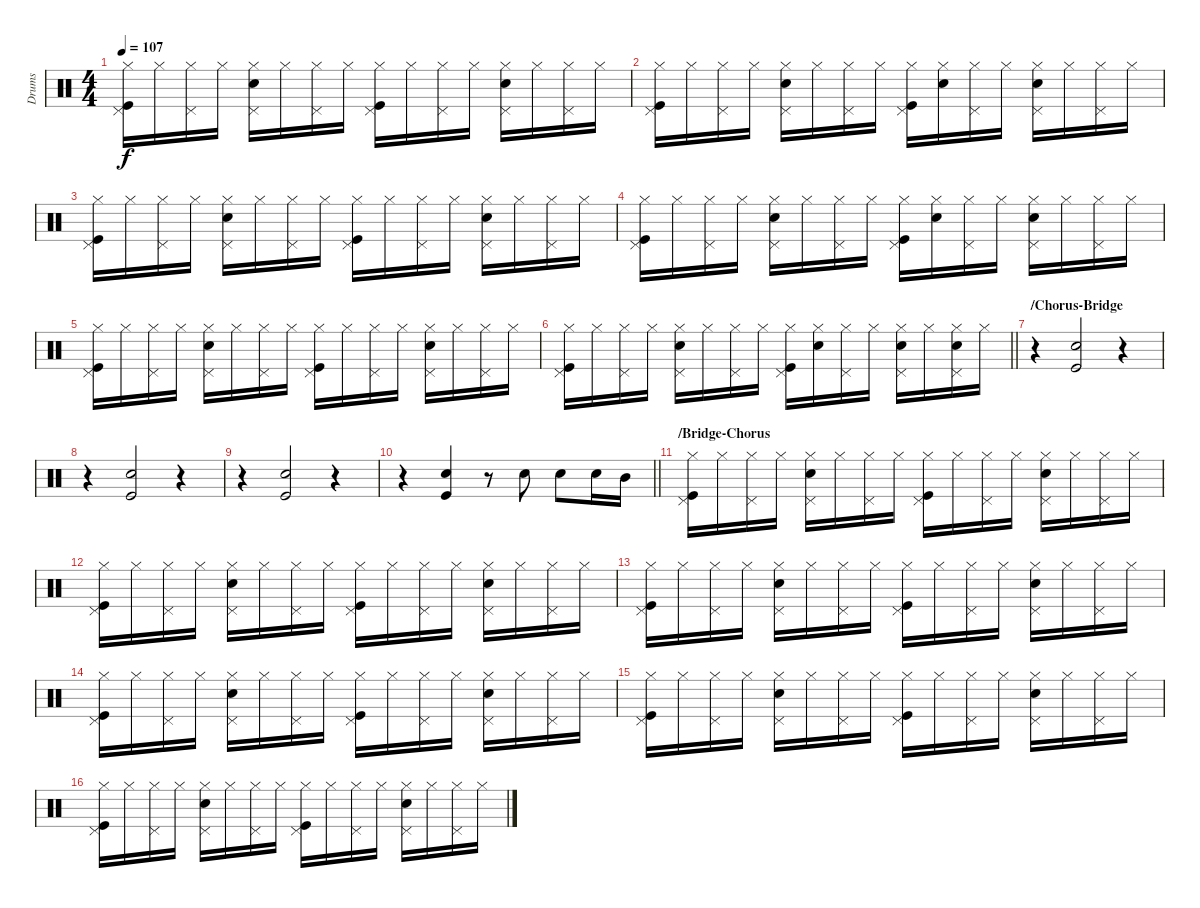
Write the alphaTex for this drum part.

\track ("Drums" "Drums") {instrument percussion}
\staff {score}
\articulation defaults
\ts (4 4)
\tempo 107
\clef neutral
\ks c
("Kick (hit)" "Pedal Hi-Hat (hit)" "Hi-Hat (closed)").16{dy f} "Hi-Hat (closed)".16 ("Pedal Hi-Hat (hit)" "Hi-Hat (closed)").16 "Hi-Hat (closed)".16 ("Snare (hit) 2" "Pedal Hi-Hat (hit)" "Hi-Hat (closed)").16 "Hi-Hat (closed)".16 ("Pedal Hi-Hat (hit)" "Hi-Hat (closed)").16 "Hi-Hat (closed)".16 ("Kick (hit)" "Pedal Hi-Hat (hit)" "Hi-Hat (closed)").16 "Hi-Hat (closed)".16 ("Pedal Hi-Hat (hit)" "Hi-Hat (closed)").16 "Hi-Hat (closed)".16 ("Snare (hit) 2" "Pedal Hi-Hat (hit)" "Hi-Hat (closed)").16 "Hi-Hat (closed)".16 ("Pedal Hi-Hat (hit)" "Hi-Hat (closed)").16 "Hi-Hat (closed)".16 |
("Kick (hit)" "Pedal Hi-Hat (hit)" "Hi-Hat (closed)").16 "Hi-Hat (closed)".16 ("Pedal Hi-Hat (hit)" "Hi-Hat (closed)").16 "Hi-Hat (closed)".16 ("Snare (hit) 2" "Pedal Hi-Hat (hit)" "Hi-Hat (closed)").16 "Hi-Hat (closed)".16 ("Pedal Hi-Hat (hit)" "Hi-Hat (closed)").16 "Hi-Hat (closed)".16 ("Kick (hit)" "Pedal Hi-Hat (hit)" "Hi-Hat (closed)").16 ("Snare (hit) 2" "Hi-Hat (closed)").16 ("Pedal Hi-Hat (hit)" "Hi-Hat (closed)").16 "Hi-Hat (closed)".16 ("Snare (hit) 2" "Pedal Hi-Hat (hit)" "Hi-Hat (closed)").16 "Hi-Hat (closed)".16 ("Pedal Hi-Hat (hit)" "Hi-Hat (closed)").16 "Hi-Hat (closed)".16 |
("Kick (hit)" "Pedal Hi-Hat (hit)" "Hi-Hat (closed)").16 "Hi-Hat (closed)".16 ("Pedal Hi-Hat (hit)" "Hi-Hat (closed)").16 "Hi-Hat (closed)".16 ("Snare (hit) 2" "Pedal Hi-Hat (hit)" "Hi-Hat (closed)").16 "Hi-Hat (closed)".16 ("Pedal Hi-Hat (hit)" "Hi-Hat (closed)").16 "Hi-Hat (closed)".16 ("Kick (hit)" "Pedal Hi-Hat (hit)" "Hi-Hat (closed)").16 "Hi-Hat (closed)".16 ("Pedal Hi-Hat (hit)" "Hi-Hat (closed)").16 "Hi-Hat (closed)".16 ("Snare (hit) 2" "Pedal Hi-Hat (hit)" "Hi-Hat (closed)").16 "Hi-Hat (closed)".16 ("Pedal Hi-Hat (hit)" "Hi-Hat (closed)").16 "Hi-Hat (closed)".16 |
("Kick (hit)" "Pedal Hi-Hat (hit)" "Hi-Hat (closed)").16 "Hi-Hat (closed)".16 ("Pedal Hi-Hat (hit)" "Hi-Hat (closed)").16 "Hi-Hat (closed)".16 ("Snare (hit) 2" "Pedal Hi-Hat (hit)" "Hi-Hat (closed)").16 "Hi-Hat (closed)".16 ("Pedal Hi-Hat (hit)" "Hi-Hat (closed)").16 "Hi-Hat (closed)".16 ("Kick (hit)" "Pedal Hi-Hat (hit)" "Hi-Hat (closed)").16 ("Snare (hit) 2" "Hi-Hat (closed)").16 ("Pedal Hi-Hat (hit)" "Hi-Hat (closed)").16 "Hi-Hat (closed)".16 ("Snare (hit) 2" "Pedal Hi-Hat (hit)" "Hi-Hat (closed)").16 "Hi-Hat (closed)".16 ("Pedal Hi-Hat (hit)" "Hi-Hat (closed)").16 "Hi-Hat (closed)".16 |
("Kick (hit)" "Pedal Hi-Hat (hit)" "Hi-Hat (closed)").16 "Hi-Hat (closed)".16 ("Pedal Hi-Hat (hit)" "Hi-Hat (closed)").16 "Hi-Hat (closed)".16 ("Snare (hit) 2" "Pedal Hi-Hat (hit)" "Hi-Hat (closed)").16 "Hi-Hat (closed)".16 ("Pedal Hi-Hat (hit)" "Hi-Hat (closed)").16 "Hi-Hat (closed)".16 ("Kick (hit)" "Pedal Hi-Hat (hit)" "Hi-Hat (closed)").16 "Hi-Hat (closed)".16 ("Pedal Hi-Hat (hit)" "Hi-Hat (closed)").16 "Hi-Hat (closed)".16 ("Snare (hit) 2" "Pedal Hi-Hat (hit)" "Hi-Hat (closed)").16 "Hi-Hat (closed)".16 ("Pedal Hi-Hat (hit)" "Hi-Hat (closed)").16 "Hi-Hat (closed)".16 |
\barLineRight lightlight
("Kick (hit)" "Pedal Hi-Hat (hit)" "Hi-Hat (closed)").16 "Hi-Hat (closed)".16 ("Pedal Hi-Hat (hit)" "Hi-Hat (closed)").16 "Hi-Hat (closed)".16 ("Snare (hit) 2" "Pedal Hi-Hat (hit)" "Hi-Hat (closed)").16 "Hi-Hat (closed)".16 ("Pedal Hi-Hat (hit)" "Hi-Hat (closed)").16 "Hi-Hat (closed)".16 ("Kick (hit)" "Pedal Hi-Hat (hit)" "Hi-Hat (closed)").16 ("Snare (hit) 2" "Hi-Hat (closed)").16 ("Pedal Hi-Hat (hit)" "Hi-Hat (closed)").16 "Hi-Hat (closed)".16 ("Snare (hit) 2" "Pedal Hi-Hat (hit)" "Hi-Hat (closed)").16 "Hi-Hat (closed)".16 ("Snare (hit) 2" "Pedal Hi-Hat (hit)" "Hi-Hat (closed)").16 "Hi-Hat (closed)".16 |
\section ("" "/Chorus-Bridge")
r.4 ("Kick (hit)" "Snare (hit) 2").2 r.4 |
r.4 ("Kick (hit)" "Snare (hit) 2").2 r.4 |
r.4 ("Kick (hit)" "Snare (hit) 2").2 r.4 |
\barLineRight lightlight
r.4 ("Kick (hit)" "Snare (hit) 2").4 r.8 "Snare (hit) 2".8 "Snare (hit) 2".8 "Snare (hit) 2".16 "Mid Tom (hit)".16 |
\section ("" "/Bridge-Chorus")
("Kick (hit)" "Pedal Hi-Hat (hit)" "Hi-Hat (closed)").16 "Hi-Hat (closed)".16 ("Pedal Hi-Hat (hit)" "Hi-Hat (closed)").16 "Hi-Hat (closed)".16 ("Snare (hit) 2" "Pedal Hi-Hat (hit)" "Hi-Hat (closed)").16 "Hi-Hat (closed)".16 ("Pedal Hi-Hat (hit)" "Hi-Hat (closed)").16 "Hi-Hat (closed)".16 ("Kick (hit)" "Pedal Hi-Hat (hit)" "Hi-Hat (closed)").16 "Hi-Hat (closed)".16 ("Pedal Hi-Hat (hit)" "Hi-Hat (closed)").16 "Hi-Hat (closed)".16 ("Snare (hit) 2" "Pedal Hi-Hat (hit)" "Hi-Hat (closed)").16 "Hi-Hat (closed)".16 ("Pedal Hi-Hat (hit)" "Hi-Hat (closed)").16 "Hi-Hat (closed)".16 |
("Kick (hit)" "Pedal Hi-Hat (hit)" "Hi-Hat (closed)").16 "Hi-Hat (closed)".16 ("Pedal Hi-Hat (hit)" "Hi-Hat (closed)").16 "Hi-Hat (closed)".16 ("Snare (hit) 2" "Pedal Hi-Hat (hit)" "Hi-Hat (closed)").16 "Hi-Hat (closed)".16 ("Pedal Hi-Hat (hit)" "Hi-Hat (closed)").16 "Hi-Hat (closed)".16 ("Kick (hit)" "Pedal Hi-Hat (hit)" "Hi-Hat (closed)").16 "Hi-Hat (closed)".16 ("Pedal Hi-Hat (hit)" "Hi-Hat (closed)").16 "Hi-Hat (closed)".16 ("Snare (hit) 2" "Pedal Hi-Hat (hit)" "Hi-Hat (closed)").16 "Hi-Hat (closed)".16 ("Pedal Hi-Hat (hit)" "Hi-Hat (closed)").16 "Hi-Hat (closed)".16 |
("Kick (hit)" "Pedal Hi-Hat (hit)" "Hi-Hat (closed)").16 "Hi-Hat (closed)".16 ("Pedal Hi-Hat (hit)" "Hi-Hat (closed)").16 "Hi-Hat (closed)".16 ("Snare (hit) 2" "Pedal Hi-Hat (hit)" "Hi-Hat (closed)").16 "Hi-Hat (closed)".16 ("Pedal Hi-Hat (hit)" "Hi-Hat (closed)").16 "Hi-Hat (closed)".16 ("Kick (hit)" "Pedal Hi-Hat (hit)" "Hi-Hat (closed)").16 "Hi-Hat (closed)".16 ("Pedal Hi-Hat (hit)" "Hi-Hat (closed)").16 "Hi-Hat (closed)".16 ("Snare (hit) 2" "Pedal Hi-Hat (hit)" "Hi-Hat (closed)").16 "Hi-Hat (closed)".16 ("Pedal Hi-Hat (hit)" "Hi-Hat (closed)").16 "Hi-Hat (closed)".16 |
("Kick (hit)" "Pedal Hi-Hat (hit)" "Hi-Hat (closed)").16 "Hi-Hat (closed)".16 ("Pedal Hi-Hat (hit)" "Hi-Hat (closed)").16 "Hi-Hat (closed)".16 ("Snare (hit) 2" "Pedal Hi-Hat (hit)" "Hi-Hat (closed)").16 "Hi-Hat (closed)".16 ("Pedal Hi-Hat (hit)" "Hi-Hat (closed)").16 "Hi-Hat (closed)".16 ("Kick (hit)" "Pedal Hi-Hat (hit)" "Hi-Hat (closed)").16 "Hi-Hat (closed)".16 ("Pedal Hi-Hat (hit)" "Hi-Hat (closed)").16 "Hi-Hat (closed)".16 ("Snare (hit) 2" "Pedal Hi-Hat (hit)" "Hi-Hat (closed)").16 "Hi-Hat (closed)".16 ("Pedal Hi-Hat (hit)" "Hi-Hat (closed)").16 "Hi-Hat (closed)".16 |
("Kick (hit)" "Pedal Hi-Hat (hit)" "Hi-Hat (closed)").16 "Hi-Hat (closed)".16 ("Pedal Hi-Hat (hit)" "Hi-Hat (closed)").16 "Hi-Hat (closed)".16 ("Snare (hit) 2" "Pedal Hi-Hat (hit)" "Hi-Hat (closed)").16 "Hi-Hat (closed)".16 ("Pedal Hi-Hat (hit)" "Hi-Hat (closed)").16 "Hi-Hat (closed)".16 ("Kick (hit)" "Pedal Hi-Hat (hit)" "Hi-Hat (closed)").16 "Hi-Hat (closed)".16 ("Pedal Hi-Hat (hit)" "Hi-Hat (closed)").16 "Hi-Hat (closed)".16 ("Snare (hit) 2" "Pedal Hi-Hat (hit)" "Hi-Hat (closed)").16 "Hi-Hat (closed)".16 ("Pedal Hi-Hat (hit)" "Hi-Hat (closed)").16 "Hi-Hat (closed)".16 |
("Kick (hit)" "Pedal Hi-Hat (hit)" "Hi-Hat (closed)").16 "Hi-Hat (closed)".16 ("Pedal Hi-Hat (hit)" "Hi-Hat (closed)").16 "Hi-Hat (closed)".16 ("Snare (hit) 2" "Pedal Hi-Hat (hit)" "Hi-Hat (closed)").16 "Hi-Hat (closed)".16 ("Pedal Hi-Hat (hit)" "Hi-Hat (closed)").16 "Hi-Hat (closed)".16 ("Kick (hit)" "Pedal Hi-Hat (hit)" "Hi-Hat (closed)").16 "Hi-Hat (closed)".16 ("Pedal Hi-Hat (hit)" "Hi-Hat (closed)").16 "Hi-Hat (closed)".16 ("Snare (hit) 2" "Pedal Hi-Hat (hit)" "Hi-Hat (closed)").16 "Hi-Hat (closed)".16 ("Pedal Hi-Hat (hit)" "Hi-Hat (closed)").16 "Hi-Hat (closed)".16
